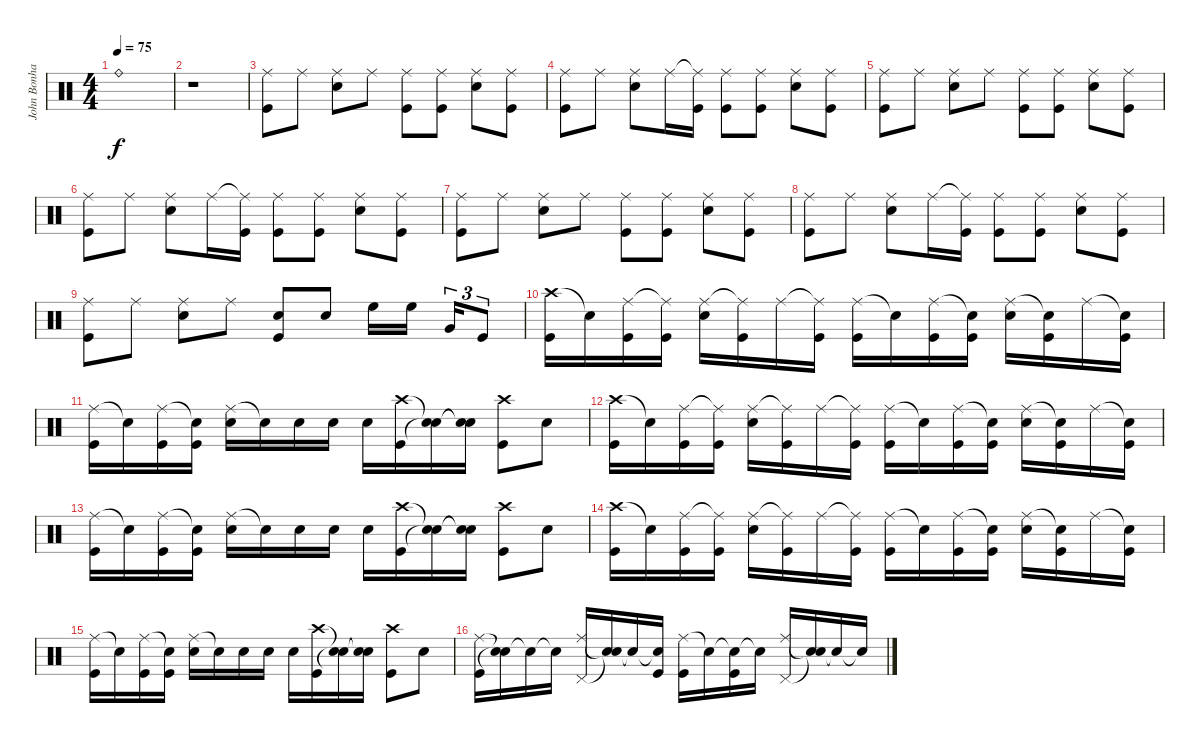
\track ("John Bonham (Drums)" "John Bonha") {instrument percussion}
\staff {score}
\articulation defaults
\ts (4 4)
\tempo 75
\clef neutral
\ks c "Ride (bell)".1{dy f}
|
r.1 |
("Ride (middle)" "Kick (hit)").8 "Ride (middle)".8 ("Ride (middle)" "Snare (hit) 2").8 "Ride (middle)".8 ("Ride (middle)" "Kick (hit)").8 ("Ride (middle)" "Kick (hit)").8 ("Ride (middle)" "Snare (hit) 2").8 ("Ride (middle)" "Kick (hit)").8 |
("Ride (middle)" "Kick (hit)").8 "Ride (middle)".8 ("Ride (middle)" "Snare (hit) 2").8 "Ride (middle)".16 ("Ride (middle)"{t} "Kick (hit)").16 ("Ride (middle)" "Kick (hit)").8 ("Ride (middle)" "Kick (hit)").8 ("Ride (middle)" "Snare (hit) 2").8 ("Ride (middle)" "Kick (hit)").8 |
("Ride (middle)" "Kick (hit)").8 "Ride (middle)".8 ("Ride (middle)" "Snare (hit) 2").8 "Ride (middle)".8 ("Ride (middle)" "Kick (hit)").8 ("Ride (middle)" "Kick (hit)").8 ("Ride (middle)" "Snare (hit) 2").8 ("Ride (middle)" "Kick (hit)").8 |
("Ride (middle)" "Kick (hit)").8 "Ride (middle)".8 ("Ride (middle)" "Snare (hit) 2").8 "Ride (middle)".16 ("Ride (middle)"{t} "Kick (hit)").16 ("Ride (middle)" "Kick (hit)").8 ("Ride (middle)" "Kick (hit)").8 ("Ride (middle)" "Snare (hit) 2").8 ("Ride (middle)" "Kick (hit)").8 |
("Ride (middle)" "Kick (hit)").8 "Ride (middle)".8 ("Ride (middle)" "Snare (hit) 2").8 "Ride (middle)".8 ("Ride (middle)" "Kick (hit)").8 ("Ride (middle)" "Kick (hit)").8 ("Ride (middle)" "Snare (hit) 2").8 ("Ride (middle)" "Kick (hit)").8 |
("Ride (middle)" "Kick (hit)").8 "Ride (middle)".8 ("Ride (middle)" "Snare (hit) 2").8 "Ride (middle)".16 ("Ride (middle)"{t} "Kick (hit)").16 ("Ride (middle)" "Kick (hit)").8 ("Ride (middle)" "Kick (hit)").8 ("Ride (middle)" "Snare (hit) 2").8 ("Ride (middle)" "Kick (hit)").8 |
("Ride (middle)" "Kick (hit)").8 "Ride (middle)".8 ("Ride (middle)" "Snare (hit) 2").8 "Ride (middle)".8 ("Snare (hit) 2" "Kick (hit)").8 "Snare (hit) 2".8 "High Floor Tom (hit)".16 "High Floor Tom (hit)".16 "Very Low Tom (hit)".16{tu (3 2)} "Kick (hit)".8{tu (3 2)} |
("Crash high (hit)" "Kick (hit)").16 "Snare (hit)"{t}.16 ("Ride (middle)" "Kick (hit)").16 ("Ride (middle)"{t} "Kick (hit)").16 ("Ride (middle)" "Snare (hit) 2").16 ("Ride (middle)"{t} "Kick (hit)").16 "Ride (middle)".16 ("Ride (middle)"{t} "Kick (hit)").16 ("Ride (middle)" "Kick (hit)").16 "Snare (hit)"{t}.16 ("Ride (middle)" "Kick (hit)").16 ("Snare (hit)"{t} "Kick (hit)").16 ("Ride (middle)" "Snare (hit) 2").16 ("Snare (hit)"{t} "Kick (hit)").16 "Ride (middle)".16 ("Snare (hit)"{t} "Kick (hit)").16 |
("Ride (middle)" "Kick (hit)").16 "Snare (hit)"{t}.16 ("Ride (middle)" "Kick (hit)").16 ("Snare (hit)"{t} "Kick (hit)").16 ("Ride (middle)" "Snare (hit) 2").16 "Snare (hit)"{t}.16 "Snare (hit) 2".16 "Snare (hit) 2".16 "Snare (hit) 2".16 ("Crash high (hit)" "Kick (hit)").16 ("Snare (hit)"{t} "Snare (hit)"{t}).16 ("Snare (hit)"{t} "Snare (hit)"{t}).16 ("Crash high (hit)" "Kick (hit)").8 "Snare (hit) 2".8 |
("Crash high (hit)" "Kick (hit)").16 "Snare (hit)"{t}.16 ("Ride (middle)" "Kick (hit)").16 ("Ride (middle)"{t} "Kick (hit)").16 ("Ride (middle)" "Snare (hit) 2").16 ("Ride (middle)"{t} "Kick (hit)").16 "Ride (middle)".16 ("Ride (middle)"{t} "Kick (hit)").16 ("Ride (middle)" "Kick (hit)").16 "Snare (hit)"{t}.16 ("Ride (middle)" "Kick (hit)").16 ("Snare (hit)"{t} "Kick (hit)").16 ("Ride (middle)" "Snare (hit) 2").16 ("Snare (hit)"{t} "Kick (hit)").16 "Ride (middle)".16 ("Snare (hit)"{t} "Kick (hit)").16 |
("Ride (middle)" "Kick (hit)").16 "Snare (hit)"{t}.16 ("Ride (middle)" "Kick (hit)").16 ("Snare (hit)"{t} "Kick (hit)").16 ("Ride (middle)" "Snare (hit) 2").16 "Snare (hit)"{t}.16 "Snare (hit) 2".16 "Snare (hit) 2".16 "Snare (hit) 2".16 ("Crash high (hit)" "Kick (hit)").16 ("Snare (hit)"{t} "Snare (hit)"{t}).16 ("Snare (hit)"{t} "Snare (hit)"{t}).16 ("Crash high (hit)" "Kick (hit)").8 "Snare (hit) 2".8 |
("Crash high (hit)" "Kick (hit)").16 "Snare (hit)"{t}.16 ("Ride (middle)" "Kick (hit)").16 ("Ride (middle)"{t} "Kick (hit)").16 ("Ride (middle)" "Snare (hit) 2").16 ("Ride (middle)"{t} "Kick (hit)").16 "Ride (middle)".16 ("Ride (middle)"{t} "Kick (hit)").16 ("Ride (middle)" "Kick (hit)").16 "Snare (hit)"{t}.16 ("Ride (middle)" "Kick (hit)").16 ("Snare (hit)"{t} "Kick (hit)").16 ("Ride (middle)" "Snare (hit) 2").16 ("Snare (hit)"{t} "Kick (hit)").16 "Ride (middle)".16 ("Snare (hit)"{t} "Kick (hit)").16 |
("Ride (middle)" "Kick (hit)").16 "Snare (hit)"{t}.16 ("Ride (middle)" "Kick (hit)").16 ("Snare (hit)"{t} "Kick (hit)").16 ("Ride (middle)" "Snare (hit) 2").16 "Snare (hit)"{t}.16 "Snare (hit) 2".16 "Snare (hit) 2".16 "Snare (hit) 2".16 ("Crash high (hit)" "Kick (hit)").16 ("Snare (hit)"{t} "Snare (hit)"{t}).16 ("Snare (hit)"{t} "Snare (hit)"{t}).16 ("Crash high (hit)" "Kick (hit)").8 "Snare (hit) 2".8 |
("Ride (middle)" "Kick (hit)").16 ("Snare (hit)"{t} "Snare (hit)"{t}).16 "Snare (hit)"{t}.16 "Snare (hit)"{t}.16 ("Ride (middle)" "Pedal Hi-Hat (hit)").16 ("Snare (hit)"{t} "Snare (hit)"{t}).16 "Snare (hit)"{t}.16 ("Snare (hit)"{t} "Kick (hit)").16 ("Ride (middle)" "Kick (hit)").16 "Snare (hit)"{t}.16 ("Snare (hit)"{t} "Kick (hit)").16 "Snare (hit)"{t}.16 ("Ride (middle)" "Pedal Hi-Hat (hit)").16 ("Snare (hit)"{t} "Snare (hit)"{t}).16 "Snare (hit)"{t}.16 "Snare (hit)"{t}.16
